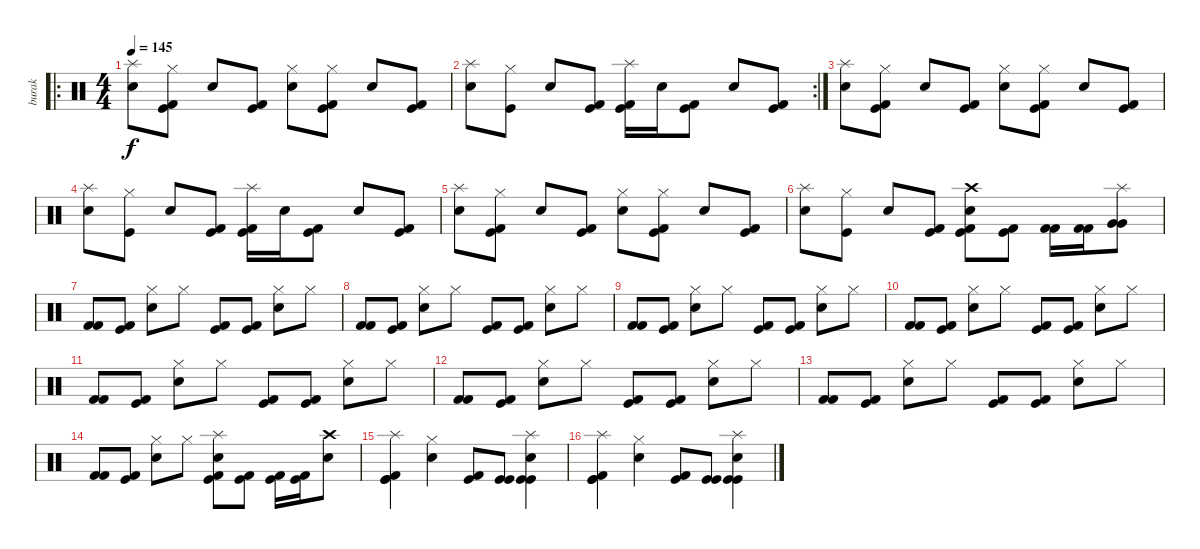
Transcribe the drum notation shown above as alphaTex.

\track ("burak" "burak") {instrument percussion}
\staff {score}
\articulation defaults
\ro
\ts (4 4)
\tempo 145
\clef neutral
\ks c
("Splash (hit)" "Electric Snare (hit)").8{dy f} ("Hi-Hat (closed)" "Kick (hit)" "Kick (hit) 2").8 "Electric Snare (hit)".8 ("Kick (hit)" "Kick (hit) 2").8 ("Hi-Hat (closed)" "Electric Snare (hit)").8 ("Hi-Hat (closed)" "Kick (hit) 2" "Kick (hit)").8 "Electric Snare (hit)".8 ("Kick (hit)" "Kick (hit) 2").8 |
\rc 2
("Splash (hit)" "Electric Snare (hit)").8 ("Hi-Hat (closed)" "Kick (hit)").8 "Electric Snare (hit)".8 ("Kick (hit)" "Kick (hit) 2").8 ("Splash (hit)" "Kick (hit)" "Kick (hit) 2").16 "Electric Snare (hit)".16 ("Kick (hit)" "Kick (hit) 2").8 "Electric Snare (hit)".8 ("Kick (hit)" "Kick (hit) 2").8 |
("Splash (hit)" "Electric Snare (hit)").8 ("Hi-Hat (closed)" "Kick (hit)" "Kick (hit) 2").8 "Electric Snare (hit)".8 ("Kick (hit)" "Kick (hit) 2").8 ("Hi-Hat (closed)" "Electric Snare (hit)").8 ("Hi-Hat (closed)" "Kick (hit) 2" "Kick (hit)").8 "Electric Snare (hit)".8 ("Kick (hit)" "Kick (hit) 2").8 |
("Splash (hit)" "Electric Snare (hit)").8 ("Hi-Hat (closed)" "Kick (hit)").8 "Electric Snare (hit)".8 ("Kick (hit)" "Kick (hit) 2").8 ("Splash (hit)" "Kick (hit)" "Kick (hit) 2").16 "Electric Snare (hit)".16 ("Kick (hit)" "Kick (hit) 2").8 "Electric Snare (hit)".8 ("Kick (hit)" "Kick (hit) 2").8 |
("Splash (hit)" "Electric Snare (hit)").8 ("Hi-Hat (closed)" "Kick (hit)" "Kick (hit) 2").8 "Electric Snare (hit)".8 ("Kick (hit)" "Kick (hit) 2").8 ("Hi-Hat (closed)" "Electric Snare (hit)").8 ("Hi-Hat (closed)" "Kick (hit) 2" "Kick (hit)").8 "Electric Snare (hit)".8 ("Kick (hit)" "Kick (hit) 2").8 |
("Splash (hit)" "Electric Snare (hit)").8 ("Hi-Hat (closed)" "Kick (hit)").8 "Electric Snare (hit)".8 ("Kick (hit)" "Kick (hit) 2").8 ("Electric Snare (hit)" "Crash high (hit)" "Kick (hit)" "Kick (hit) 2").8 ("Kick (hit)" "Kick (hit) 2").8 ("Kick (hit) 2" "Kick (hit) 2").16 ("Kick (hit) 2" "Kick (hit) 2").16 ("Splash (hit)" "Very Low Tom (hit)" "Very Low Tom (hit)").8 |
("Kick (hit) 2" "Kick (hit) 2").8 ("Kick (hit)" "Kick (hit) 2").8 ("Snare (hit) 2" "Hi-Hat (closed)").8 "Hi-Hat (closed)".8 ("Kick (hit)" "Kick (hit) 2").8 ("Kick (hit)" "Kick (hit) 2").8 ("Snare (hit) 2" "Hi-Hat (closed)").8 "Hi-Hat (closed)".8 |
("Kick (hit) 2" "Kick (hit) 2").8 ("Kick (hit)" "Kick (hit) 2").8 ("Snare (hit) 2" "Hi-Hat (closed)").8 "Hi-Hat (closed)".8 ("Kick (hit)" "Kick (hit) 2").8 ("Kick (hit)" "Kick (hit) 2").8 ("Snare (hit) 2" "Hi-Hat (closed)").8 "Hi-Hat (closed)".8 |
("Kick (hit) 2" "Kick (hit) 2").8 ("Kick (hit)" "Kick (hit) 2").8 ("Snare (hit) 2" "Hi-Hat (closed)").8 "Hi-Hat (closed)".8 ("Kick (hit)" "Kick (hit) 2").8 ("Kick (hit)" "Kick (hit) 2").8 ("Snare (hit) 2" "Hi-Hat (closed)").8 "Hi-Hat (closed)".8 |
("Kick (hit) 2" "Kick (hit) 2").8 ("Kick (hit)" "Kick (hit) 2").8 ("Snare (hit) 2" "Hi-Hat (closed)").8 "Hi-Hat (closed)".8 ("Kick (hit)" "Kick (hit) 2").8 ("Kick (hit)" "Kick (hit) 2").8 ("Snare (hit) 2" "Hi-Hat (closed)").8 "Hi-Hat (closed)".8 |
("Kick (hit) 2" "Kick (hit) 2").8 ("Kick (hit)" "Kick (hit) 2").8 ("Snare (hit) 2" "Hi-Hat (closed)").8 "Hi-Hat (closed)".8 ("Kick (hit)" "Kick (hit) 2").8 ("Kick (hit)" "Kick (hit) 2").8 ("Snare (hit) 2" "Hi-Hat (closed)").8 "Hi-Hat (closed)".8 |
("Kick (hit) 2" "Kick (hit) 2").8 ("Kick (hit)" "Kick (hit) 2").8 ("Snare (hit) 2" "Hi-Hat (closed)").8 "Hi-Hat (closed)".8 ("Kick (hit)" "Kick (hit) 2").8 ("Kick (hit)" "Kick (hit) 2").8 ("Snare (hit) 2" "Hi-Hat (closed)").8 "Hi-Hat (closed)".8 |
("Kick (hit) 2" "Kick (hit) 2").8 ("Kick (hit)" "Kick (hit) 2").8 ("Snare (hit) 2" "Hi-Hat (closed)").8 "Hi-Hat (closed)".8 ("Kick (hit)" "Kick (hit) 2").8 ("Kick (hit)" "Kick (hit) 2").8 ("Snare (hit) 2" "Hi-Hat (closed)").8 "Hi-Hat (closed)".8 |
("Kick (hit) 2" "Kick (hit) 2").8 ("Kick (hit)" "Kick (hit) 2").8 ("Snare (hit) 2" "Hi-Hat (closed)").8 "Hi-Hat (closed)".8 ("Splash (hit)" "Electric Snare (hit)" "Kick (hit)" "Kick (hit) 2").8 ("Kick (hit)" "Kick (hit) 2").8 ("Kick (hit)" "Kick (hit) 2").16 ("Kick (hit)" "Kick (hit) 2").16 ("Crash high (hit)" "Snare (hit) 2").8 |
("Splash (hit)" "Kick (hit)" "Kick (hit)" "Kick (hit) 2").4 ("Hi-Hat (closed)" "Snare (hit) 2").4 ("Kick (hit)" "Kick (hit) 2").8 ("Kick (hit)" "Kick (hit)").8 ("Splash (hit)" "Snare (hit) 2" "Kick (hit)" "Kick (hit)").4 |
("Splash (hit)" "Kick (hit)" "Kick (hit)" "Kick (hit) 2").4 ("Hi-Hat (closed)" "Snare (hit) 2").4 ("Kick (hit)" "Kick (hit) 2").8 ("Kick (hit)" "Kick (hit)").8 ("Splash (hit)" "Snare (hit) 2" "Kick (hit)" "Kick (hit)").4
